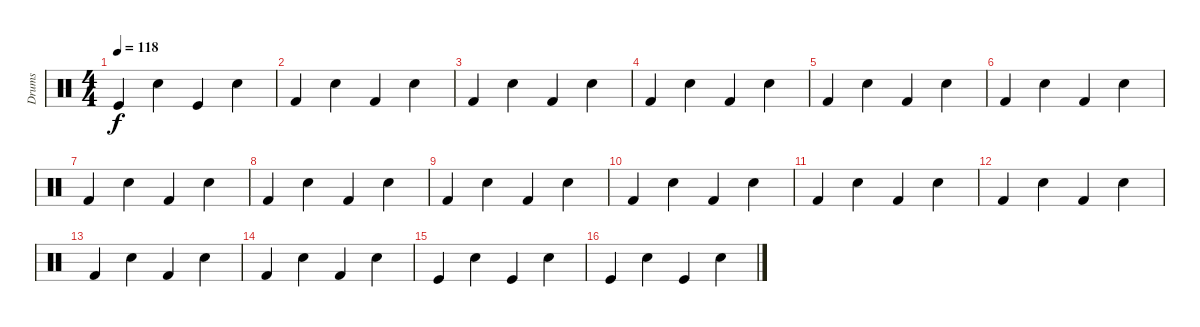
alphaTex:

\track ("Drums" "Drums") {instrument percussion}
\staff {score}
\articulation defaults
\ts (4 4)
\tempo 118
\clef neutral
\ks c "Kick (hit)".4{dy f} "Snare (hit) 2".4 "Kick (hit)".4 "Snare (hit) 2".4
|
"Kick (hit) 2".4 "Snare (hit) 2".4 "Kick (hit) 2".4 "Snare (hit) 2".4 |
"Kick (hit) 2".4 "Snare (hit) 2".4 "Kick (hit) 2".4 "Snare (hit) 2".4 |
"Kick (hit) 2".4 "Snare (hit) 2".4 "Kick (hit) 2".4 "Snare (hit) 2".4 |
"Kick (hit) 2".4 "Snare (hit) 2".4 "Kick (hit) 2".4 "Snare (hit) 2".4 |
"Kick (hit) 2".4 "Snare (hit) 2".4 "Kick (hit) 2".4 "Snare (hit) 2".4 |
"Kick (hit) 2".4 "Snare (hit) 2".4 "Kick (hit) 2".4 "Snare (hit) 2".4 |
"Kick (hit) 2".4 "Snare (hit) 2".4 "Kick (hit) 2".4 "Snare (hit) 2".4 |
"Kick (hit) 2".4 "Snare (hit) 2".4 "Kick (hit) 2".4 "Snare (hit) 2".4 |
"Kick (hit) 2".4 "Snare (hit) 2".4 "Kick (hit) 2".4 "Snare (hit) 2".4 |
"Kick (hit) 2".4 "Snare (hit) 2".4 "Kick (hit) 2".4 "Snare (hit) 2".4 |
"Kick (hit) 2".4 "Snare (hit) 2".4 "Kick (hit) 2".4 "Snare (hit) 2".4 |
"Kick (hit) 2".4 "Snare (hit) 2".4 "Kick (hit) 2".4 "Snare (hit) 2".4 |
"Kick (hit) 2".4 "Snare (hit) 2".4 "Kick (hit) 2".4 "Snare (hit) 2".4 |
"Kick (hit)".4 "Snare (hit) 2".4 "Kick (hit)".4 "Snare (hit) 2".4 |
"Kick (hit)".4 "Snare (hit) 2".4 "Kick (hit)".4 "Snare (hit) 2".4
